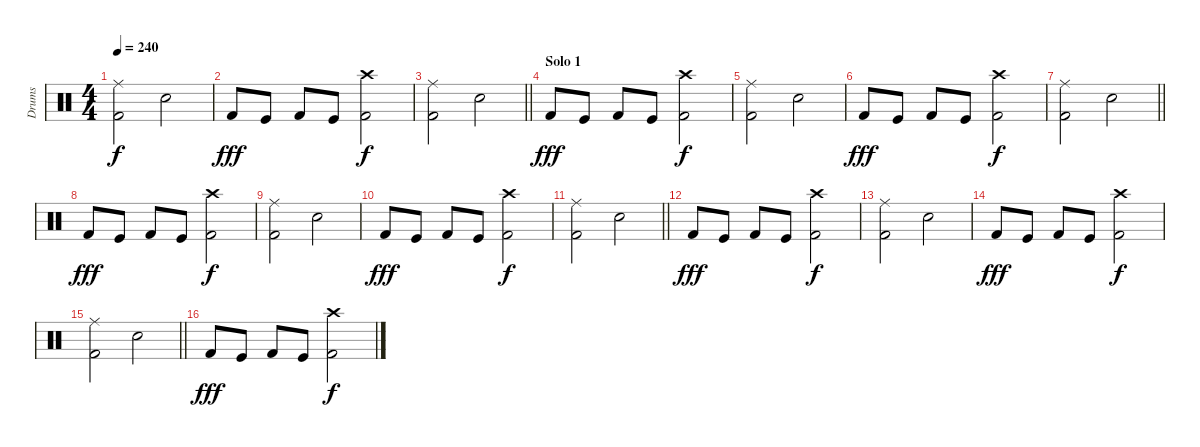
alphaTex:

\track ("Drums" "Drums") {instrument percussion}
\staff {score}
\articulation defaults
\ts (4 4)
\tempo 240
\clef neutral
\ks c
("Ride (middle)" "Kick (hit) 2").2{dy f} "Snare (hit) 2".2 |
"Kick (hit) 2".8{dy fff} "Kick (hit)".8 "Kick (hit) 2".8 "Kick (hit)".8 ("Crash high (hit)" "Kick (hit) 2").2{dy f} |
\barLineRight lightlight
("Ride (middle)" "Kick (hit) 2").2 "Snare (hit) 2".2 |
\section ("" "Solo 1")
"Kick (hit) 2".8{dy fff} "Kick (hit)".8 "Kick (hit) 2".8 "Kick (hit)".8 ("Crash high (hit)" "Kick (hit) 2").2{dy f} |
("Ride (middle)" "Kick (hit) 2").2 "Snare (hit) 2".2 |
"Kick (hit) 2".8{dy fff} "Kick (hit)".8 "Kick (hit) 2".8 "Kick (hit)".8 ("Crash high (hit)" "Kick (hit) 2").2{dy f} |
\barLineRight lightlight
("Ride (middle)" "Kick (hit) 2").2 "Snare (hit) 2".2 |
"Kick (hit) 2".8{dy fff} "Kick (hit)".8 "Kick (hit) 2".8 "Kick (hit)".8 ("Crash high (hit)" "Kick (hit) 2").2{dy f} |
("Ride (middle)" "Kick (hit) 2").2 "Snare (hit) 2".2 |
"Kick (hit) 2".8{dy fff} "Kick (hit)".8 "Kick (hit) 2".8 "Kick (hit)".8 ("Crash high (hit)" "Kick (hit) 2").2{dy f} |
\barLineRight lightlight
("Ride (middle)" "Kick (hit) 2").2 "Snare (hit) 2".2 |
"Kick (hit) 2".8{dy fff} "Kick (hit)".8 "Kick (hit) 2".8 "Kick (hit)".8 ("Crash high (hit)" "Kick (hit) 2").2{dy f} |
("Ride (middle)" "Kick (hit) 2").2 "Snare (hit) 2".2 |
"Kick (hit) 2".8{dy fff} "Kick (hit)".8 "Kick (hit) 2".8 "Kick (hit)".8 ("Crash high (hit)" "Kick (hit) 2").2{dy f} |
\barLineRight lightlight
("Ride (middle)" "Kick (hit) 2").2 "Snare (hit) 2".2 |
"Kick (hit) 2".8{dy fff} "Kick (hit)".8 "Kick (hit) 2".8 "Kick (hit)".8 ("Crash high (hit)" "Kick (hit) 2").2{dy f}
